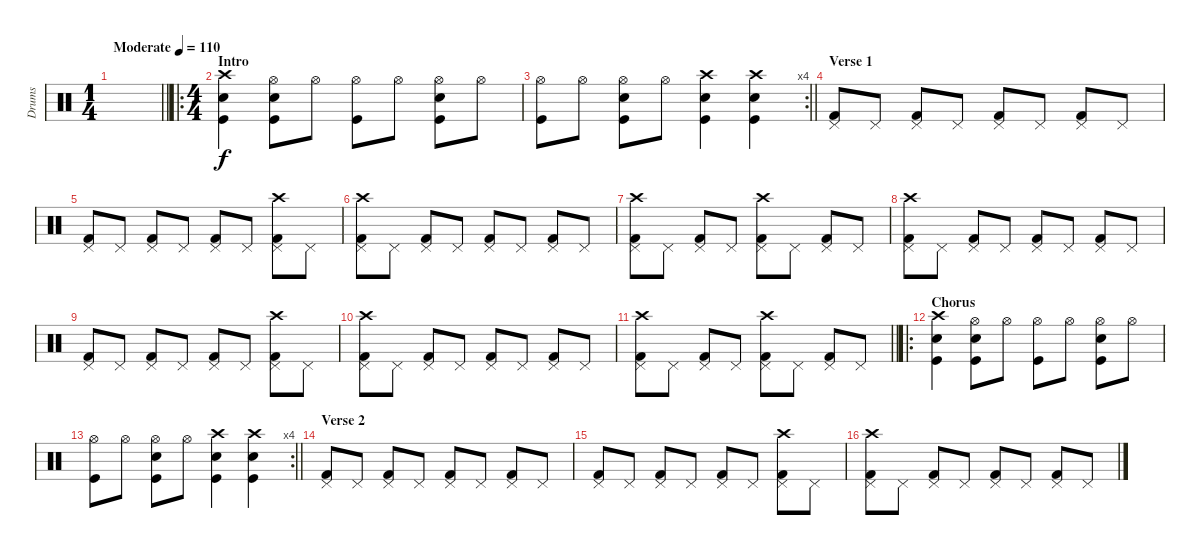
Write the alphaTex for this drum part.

\track ("Drums" "Drums") {instrument percussion}
\staff {score}
\articulation defaults
\ts (1 4)
\tempo (110 "Moderate")
\clef neutral
\barLineRight lightlight
\ks c
|
\ro
\ts (4 4)
\section ("" "Intro")
("Crash high (hit)" "Snare (hit) 2" "Kick (hit)").4 ("Hi-Hat (open)" "Snare (hit) 2" "Kick (hit)").8 "Hi-Hat (open)".8 ("Hi-Hat (open)" "Kick (hit)").8 "Hi-Hat (open)".8 ("Hi-Hat (open)" "Snare (hit) 2" "Kick (hit)").8 "Hi-Hat (open)".8 |
\rc 4
\barLineRight lightlight
("Hi-Hat (open)" "Kick (hit)").8 "Hi-Hat (open)".8 ("Hi-Hat (open)" "Snare (hit) 2" "Kick (hit)").8 "Hi-Hat (open)".8 ("Crash high (hit)" "Snare (hit) 2" "Kick (hit)").4 ("Crash high (hit)" "Snare (hit) 2" "Kick (hit)").4 |
\section ("" "Verse 1")
("Pedal Hi-Hat (hit)" "Kick (hit) 2").8 "Pedal Hi-Hat (hit)".8 ("Pedal Hi-Hat (hit)" "Kick (hit) 2").8 "Pedal Hi-Hat (hit)".8 ("Pedal Hi-Hat (hit)" "Kick (hit) 2").8 "Pedal Hi-Hat (hit)".8 ("Pedal Hi-Hat (hit)" "Kick (hit) 2").8 "Pedal Hi-Hat (hit)".8 |
("Pedal Hi-Hat (hit)" "Kick (hit) 2").8 "Pedal Hi-Hat (hit)".8 ("Pedal Hi-Hat (hit)" "Kick (hit) 2").8 "Pedal Hi-Hat (hit)".8 ("Pedal Hi-Hat (hit)" "Kick (hit) 2").8 "Pedal Hi-Hat (hit)".8 ("Crash high (hit)" "Pedal Hi-Hat (hit)" "Kick (hit) 2").8 "Pedal Hi-Hat (hit)".8 |
("Crash high (hit)" "Pedal Hi-Hat (hit)" "Kick (hit) 2").8 "Pedal Hi-Hat (hit)".8 ("Pedal Hi-Hat (hit)" "Kick (hit) 2").8 "Pedal Hi-Hat (hit)".8 ("Pedal Hi-Hat (hit)" "Kick (hit) 2").8 "Pedal Hi-Hat (hit)".8 ("Pedal Hi-Hat (hit)" "Kick (hit) 2").8 "Pedal Hi-Hat (hit)".8 |
("Crash high (hit)" "Pedal Hi-Hat (hit)" "Kick (hit) 2").8 "Pedal Hi-Hat (hit)".8 ("Pedal Hi-Hat (hit)" "Kick (hit) 2").8 "Pedal Hi-Hat (hit)".8 ("Crash high (hit)" "Pedal Hi-Hat (hit)" "Kick (hit) 2").8 "Pedal Hi-Hat (hit)".8 ("Pedal Hi-Hat (hit)" "Kick (hit) 2").8 "Pedal Hi-Hat (hit)".8 |
("Crash high (hit)" "Pedal Hi-Hat (hit)" "Kick (hit) 2").8 "Pedal Hi-Hat (hit)".8 ("Pedal Hi-Hat (hit)" "Kick (hit) 2").8 "Pedal Hi-Hat (hit)".8 ("Pedal Hi-Hat (hit)" "Kick (hit) 2").8 "Pedal Hi-Hat (hit)".8 ("Pedal Hi-Hat (hit)" "Kick (hit) 2").8 "Pedal Hi-Hat (hit)".8 |
("Pedal Hi-Hat (hit)" "Kick (hit) 2").8 "Pedal Hi-Hat (hit)".8 ("Pedal Hi-Hat (hit)" "Kick (hit) 2").8 "Pedal Hi-Hat (hit)".8 ("Pedal Hi-Hat (hit)" "Kick (hit) 2").8 "Pedal Hi-Hat (hit)".8 ("Crash high (hit)" "Pedal Hi-Hat (hit)" "Kick (hit) 2").8 "Pedal Hi-Hat (hit)".8 |
("Crash high (hit)" "Pedal Hi-Hat (hit)" "Kick (hit) 2").8 "Pedal Hi-Hat (hit)".8 ("Pedal Hi-Hat (hit)" "Kick (hit) 2").8 "Pedal Hi-Hat (hit)".8 ("Pedal Hi-Hat (hit)" "Kick (hit) 2").8 "Pedal Hi-Hat (hit)".8 ("Pedal Hi-Hat (hit)" "Kick (hit) 2").8 "Pedal Hi-Hat (hit)".8 |
\barLineRight lightlight
("Crash high (hit)" "Pedal Hi-Hat (hit)" "Kick (hit) 2").8 "Pedal Hi-Hat (hit)".8 ("Pedal Hi-Hat (hit)" "Kick (hit) 2").8 "Pedal Hi-Hat (hit)".8 ("Crash high (hit)" "Pedal Hi-Hat (hit)" "Kick (hit) 2").8 "Pedal Hi-Hat (hit)".8 ("Pedal Hi-Hat (hit)" "Kick (hit) 2").8 "Pedal Hi-Hat (hit)".8 |
\ro
\section ("" "Chorus")
("Crash high (hit)" "Snare (hit) 2" "Kick (hit)").4 ("Hi-Hat (open)" "Snare (hit) 2" "Kick (hit)").8 "Hi-Hat (open)".8 ("Hi-Hat (open)" "Kick (hit)").8 "Hi-Hat (open)".8 ("Hi-Hat (open)" "Snare (hit) 2" "Kick (hit)").8 "Hi-Hat (open)".8 |
\rc 4
\barLineRight lightlight
("Hi-Hat (open)" "Kick (hit)").8 "Hi-Hat (open)".8 ("Hi-Hat (open)" "Snare (hit) 2" "Kick (hit)").8 "Hi-Hat (open)".8 ("Crash high (hit)" "Snare (hit) 2" "Kick (hit)").4 ("Crash high (hit)" "Snare (hit) 2" "Kick (hit)").4 |
\section ("" "Verse 2")
("Pedal Hi-Hat (hit)" "Kick (hit) 2").8 "Pedal Hi-Hat (hit)".8 ("Pedal Hi-Hat (hit)" "Kick (hit) 2").8 "Pedal Hi-Hat (hit)".8 ("Pedal Hi-Hat (hit)" "Kick (hit) 2").8 "Pedal Hi-Hat (hit)".8 ("Pedal Hi-Hat (hit)" "Kick (hit) 2").8 "Pedal Hi-Hat (hit)".8 |
("Pedal Hi-Hat (hit)" "Kick (hit) 2").8 "Pedal Hi-Hat (hit)".8 ("Pedal Hi-Hat (hit)" "Kick (hit) 2").8 "Pedal Hi-Hat (hit)".8 ("Pedal Hi-Hat (hit)" "Kick (hit) 2").8 "Pedal Hi-Hat (hit)".8 ("Crash high (hit)" "Pedal Hi-Hat (hit)" "Kick (hit) 2").8 "Pedal Hi-Hat (hit)".8 |
("Crash high (hit)" "Pedal Hi-Hat (hit)" "Kick (hit) 2").8 "Pedal Hi-Hat (hit)".8 ("Pedal Hi-Hat (hit)" "Kick (hit) 2").8 "Pedal Hi-Hat (hit)".8 ("Pedal Hi-Hat (hit)" "Kick (hit) 2").8 "Pedal Hi-Hat (hit)".8 ("Pedal Hi-Hat (hit)" "Kick (hit) 2").8 "Pedal Hi-Hat (hit)".8
